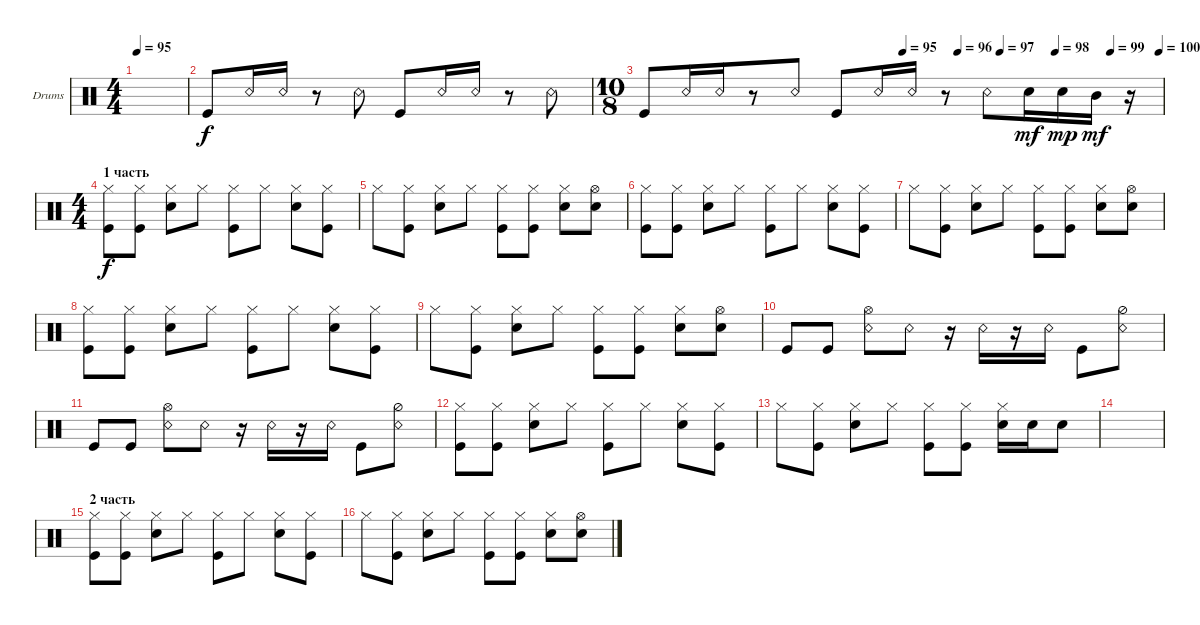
\defaultSystemsLayout 4
\bracketExtendMode groupsimilarinstruments
\firstSystemTrackNameOrientation horizontal
\otherSystemsTrackNameOrientation horizontal
\track ("Drumkit" "Drums") {instrument percussion}
\staff {score}
\articulation defaults
\ts (4 4)
\tempo 95
\clef neutral
\ks c
|
"Kick (hit)".8 "Snare (rim shot)".16 "Snare (rim shot)".16 r.8 "Snare (rim shot)".8 "Kick (hit)".8 "Snare (rim shot)".16 "Snare (rim shot)".16 r.8 "Snare (rim shot)".8 |
\ts (10 8)
\tempo (95 0.5)
\tempo (96 0.60625)
\tempo (97 0.6875)
\tempo (98 0.79375)
\tempo (99 0.9)
\tempo (100 0.99375)
\scale
0.5 "Kick (hit)".8 "Snare (rim shot)".16 "Snare (rim shot)".16 r.8 "Snare (rim shot)".8 "Kick (hit)".8 "Snare (rim shot)".16 "Snare (rim shot)".16 r.8 "Snare (rim shot)".8 "Snare (hit) 2".16{dy mf} "Snare (hit) 2".16{dy mp} "Mid Tom (hit)".16{dy mf} r.16 |
\ts (4 4)
\section ("" "1 часть")
\scale
0.5 ("Hi-Hat (closed)" "Kick (hit)").8{dy f} ("Hi-Hat (closed)" "Kick (hit)").8 ("Hi-Hat (closed)" "Snare (hit) 2").8 "Hi-Hat (closed)".8 ("Hi-Hat (closed)" "Kick (hit)").8 "Hi-Hat (closed)".8 ("Hi-Hat (closed)" "Snare (hit) 2").8 ("Hi-Hat (closed)" "Kick (hit)").8 |
\scale
0.5 "Hi-Hat (closed)".8 ("Hi-Hat (closed)" "Kick (hit)").8 ("Hi-Hat (closed)" "Snare (hit) 2").8 "Hi-Hat (closed)".8 ("Hi-Hat (closed)" "Kick (hit)").8 ("Hi-Hat (closed)" "Kick (hit)").8 ("Hi-Hat (closed)" "Snare (hit) 2").8 ("Hi-Hat (open)" "Snare (hit) 2").8 |
\scale
0.5 ("Hi-Hat (closed)" "Kick (hit)").8 ("Hi-Hat (closed)" "Kick (hit)").8 ("Hi-Hat (closed)" "Snare (hit) 2").8 "Hi-Hat (closed)".8 ("Hi-Hat (closed)" "Kick (hit)").8 "Hi-Hat (closed)".8 ("Hi-Hat (closed)" "Snare (hit) 2").8 ("Hi-Hat (closed)" "Kick (hit)").8 |
\scale
0.5 "Hi-Hat (closed)".8 ("Hi-Hat (closed)" "Kick (hit)").8 ("Hi-Hat (closed)" "Snare (hit) 2").8 "Hi-Hat (closed)".8 ("Hi-Hat (closed)" "Kick (hit)").8 ("Hi-Hat (closed)" "Kick (hit)").8 ("Hi-Hat (closed)" "Snare (hit) 2").8 ("Hi-Hat (open)" "Snare (hit) 2").8 |
\scale
0.5 ("Hi-Hat (closed)" "Kick (hit)").8 ("Hi-Hat (closed)" "Kick (hit)").8 ("Hi-Hat (closed)" "Snare (hit) 2").8 "Hi-Hat (closed)".8 ("Hi-Hat (closed)" "Kick (hit)").8 "Hi-Hat (closed)".8 ("Hi-Hat (closed)" "Snare (hit) 2").8 ("Hi-Hat (closed)" "Kick (hit)").8 |
\scale
0.5 "Hi-Hat (closed)".8 ("Hi-Hat (closed)" "Kick (hit)").8 ("Hi-Hat (closed)" "Snare (hit) 2").8 "Hi-Hat (closed)".8 ("Hi-Hat (closed)" "Kick (hit)").8 ("Hi-Hat (closed)" "Kick (hit)").8 ("Hi-Hat (closed)" "Snare (hit) 2").8 ("Hi-Hat (open)" "Snare (hit) 2").8 |
\scale
0.5 "Kick (hit)".8 "Kick (hit)".8 ("Snare (rim shot)" "Hi-Hat (open)").8 "Snare (rim shot)".8 r.16 "Snare (rim shot)".16 r.16 "Snare (rim shot)".16 "Kick (hit)".8 ("Snare (rim shot)" "Hi-Hat (half)").8 |
\scale
0.5 "Kick (hit)".8 "Kick (hit)".8 ("Snare (rim shot)" "Hi-Hat (open)").8 "Snare (rim shot)".8 r.16 "Snare (rim shot)".16 r.16 "Snare (rim shot)".16 "Kick (hit)".8 ("Snare (rim shot)" "Hi-Hat (half)").8 |
\scale
0.5 ("Hi-Hat (closed)" "Kick (hit)").8 ("Hi-Hat (closed)" "Kick (hit)").8 ("Hi-Hat (closed)" "Snare (hit) 2").8 "Hi-Hat (closed)".8 ("Hi-Hat (closed)" "Kick (hit)").8 "Hi-Hat (closed)".8 ("Hi-Hat (closed)" "Snare (hit) 2").8 ("Hi-Hat (closed)" "Kick (hit)").8 |
\scale
0.5 "Hi-Hat (closed)".8 ("Hi-Hat (closed)" "Kick (hit)").8 ("Hi-Hat (closed)" "Snare (hit) 2").8 "Hi-Hat (closed)".8 ("Hi-Hat (closed)" "Kick (hit)").8 ("Hi-Hat (closed)" "Kick (hit)").8 ("Hi-Hat (closed)" "Snare (hit) 2").16 "Snare (hit) 2".16 "Snare (hit) 2".8 |
|
\section ("" "2 часть")
\scale
0.5 ("Hi-Hat (closed)" "Kick (hit)").8 ("Hi-Hat (closed)" "Kick (hit)").8 ("Hi-Hat (closed)" "Snare (hit) 2").8 "Hi-Hat (closed)".8 ("Hi-Hat (closed)" "Kick (hit)").8 "Hi-Hat (closed)".8 ("Hi-Hat (closed)" "Snare (hit) 2").8 ("Hi-Hat (closed)" "Kick (hit)").8 |
\scale
0.5 "Hi-Hat (closed)".8 ("Hi-Hat (closed)" "Kick (hit)").8 ("Hi-Hat (closed)" "Snare (hit) 2").8 "Hi-Hat (closed)".8 ("Hi-Hat (closed)" "Kick (hit)").8 ("Hi-Hat (closed)" "Kick (hit)").8 ("Hi-Hat (closed)" "Snare (hit) 2").8 ("Hi-Hat (open)" "Snare (hit) 2").8
